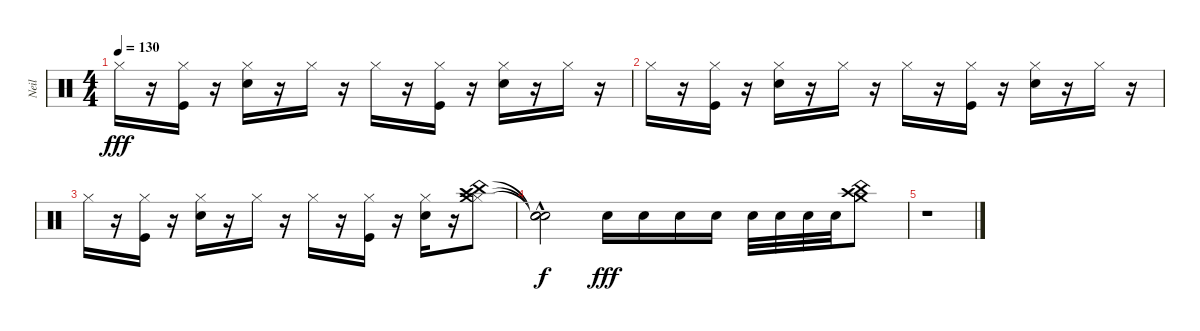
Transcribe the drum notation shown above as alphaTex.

\track ("Neil" "Neil") {instrument percussion}
\staff {score}
\articulation defaults
\ts (4 4)
\tempo 130
\clef neutral
\ks c "Hi-Hat (closed)".16{dy fff}
r.16 ("Hi-Hat (closed)" "Kick (hit)").16 r.16 ("Hi-Hat (closed)" "Electric Snare (hit)").16 r.16 "Hi-Hat (closed)".16 r.16 "Hi-Hat (closed)".16 r.16 ("Kick (hit)" "Hi-Hat (closed)").16 r.16 ("Electric Snare (hit)" "Hi-Hat (closed)").16 r.16 "Hi-Hat (closed)".16 r.16 |
"Hi-Hat (closed)".16 r.16 ("Hi-Hat (closed)" "Kick (hit)").16 r.16 ("Hi-Hat (closed)" "Electric Snare (hit)").16 r.16 "Hi-Hat (closed)".16 r.16 "Hi-Hat (closed)".16 r.16 ("Kick (hit)" "Hi-Hat (closed)").16 r.16 ("Electric Snare (hit)" "Hi-Hat (closed)").16 r.16 "Hi-Hat (closed)".16 r.16 |
"Hi-Hat (closed)".16 r.16 ("Hi-Hat (closed)" "Kick (hit)").16 r.16 ("Hi-Hat (closed)" "Electric Snare (hit)").16 r.16 "Hi-Hat (closed)".16 r.16 "Hi-Hat (closed)".16 r.16 ("Kick (hit)" "Hi-Hat (closed)").16 r.16 ("Electric Snare (hit)" "Hi-Hat (closed)").16 r.16 ("Hi-Hat (closed)" "China (hit)" "Crash high (hit)" "Crash medium (hit)").8 |
("Snare (hit)"{hac t} "Snare (hit)"{hac t} "Snare (hit)"{hac t}).2{dy f} "Electric Snare (hit)".16{dy fff} "Electric Snare (hit)".16 "Electric Snare (hit)".16 "Electric Snare (hit)".16 "Electric Snare (hit)".32 "Electric Snare (hit)".32 "Electric Snare (hit)".32 "Electric Snare (hit)".32 ("Crash medium (hit)" "China (hit)" "Crash high (hit)").8 |
r.1
